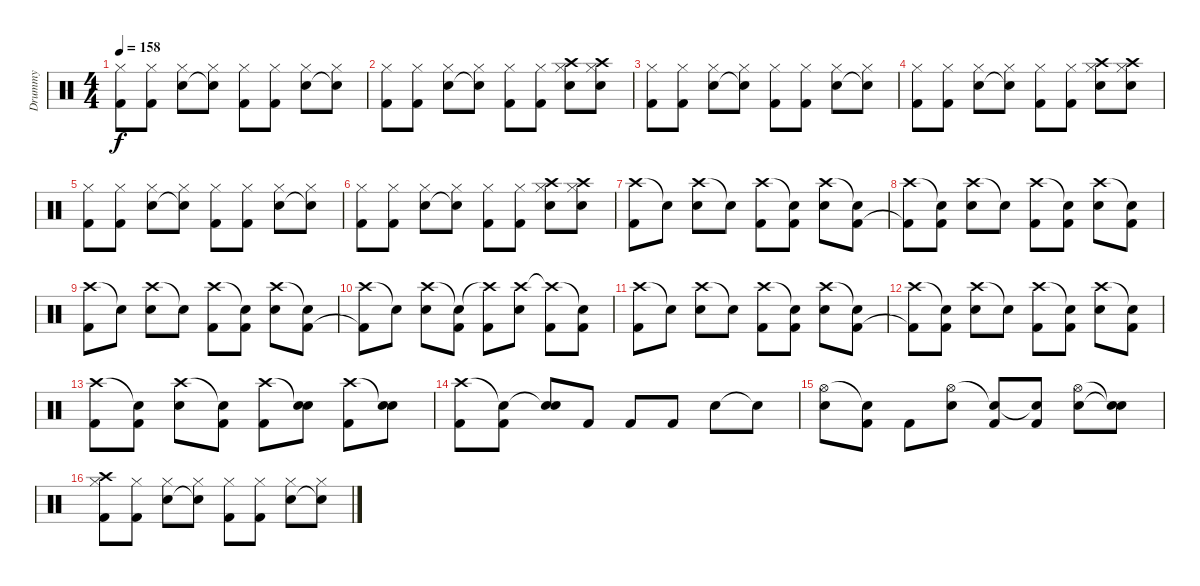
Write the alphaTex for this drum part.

\track ("Drummy" "Drummy") {instrument percussion bank 127}
\staff {score}
\articulation defaults
\ts (4 4)
\tempo 158
\clef neutral
\ks c
("Hi-Hat (closed)" "Kick (hit) 2").8{dy f} ("Hi-Hat (closed)" "Kick (hit) 2").8 ("Hi-Hat (closed)" "Electric Snare (hit)").8 ("Hi-Hat (closed)" "Snare (hit)"{t}).8 ("Hi-Hat (closed)" "Kick (hit) 2").8 ("Hi-Hat (closed)" "Kick (hit) 2").8 ("Hi-Hat (closed)" "Electric Snare (hit)").8 ("Hi-Hat (closed)" "Snare (hit)"{t}).8 |
("Hi-Hat (closed)" "Kick (hit) 2").8 ("Hi-Hat (closed)" "Kick (hit) 2").8 ("Hi-Hat (closed)" "Electric Snare (hit)").8 ("Hi-Hat (closed)" "Snare (hit)"{t}).8 ("Hi-Hat (closed)" "Kick (hit) 2").8 ("Hi-Hat (closed)" "Kick (hit) 2").8 ("Hi-Hat (closed)" "Crash high (hit)" "Electric Snare (hit)").8 ("Hi-Hat (closed)" "Crash high (hit)" "Electric Snare (hit)").8 |
("Hi-Hat (closed)" "Kick (hit) 2").8 ("Hi-Hat (closed)" "Kick (hit) 2").8 ("Hi-Hat (closed)" "Electric Snare (hit)").8 ("Hi-Hat (closed)" "Snare (hit)"{t}).8 ("Hi-Hat (closed)" "Kick (hit) 2").8 ("Hi-Hat (closed)" "Kick (hit) 2").8 ("Hi-Hat (closed)" "Electric Snare (hit)").8 ("Hi-Hat (closed)" "Snare (hit)"{t}).8 |
("Hi-Hat (closed)" "Kick (hit) 2").8 ("Hi-Hat (closed)" "Kick (hit) 2").8 ("Hi-Hat (closed)" "Electric Snare (hit)").8 ("Hi-Hat (closed)" "Snare (hit)"{t}).8 ("Hi-Hat (closed)" "Kick (hit) 2").8 ("Hi-Hat (closed)" "Kick (hit) 2").8 ("Hi-Hat (closed)" "Crash high (hit)" "Electric Snare (hit)").8 ("Hi-Hat (closed)" "Crash high (hit)" "Electric Snare (hit)").8 |
("Hi-Hat (closed)" "Kick (hit) 2").8 ("Hi-Hat (closed)" "Kick (hit) 2").8 ("Hi-Hat (closed)" "Electric Snare (hit)").8 ("Hi-Hat (closed)" "Snare (hit)"{t}).8 ("Hi-Hat (closed)" "Kick (hit) 2").8 ("Hi-Hat (closed)" "Kick (hit) 2").8 ("Hi-Hat (closed)" "Electric Snare (hit)").8 ("Hi-Hat (closed)" "Snare (hit)"{t}).8 |
("Hi-Hat (closed)" "Kick (hit) 2").8 ("Hi-Hat (closed)" "Kick (hit) 2").8 ("Hi-Hat (closed)" "Electric Snare (hit)").8 ("Hi-Hat (closed)" "Snare (hit)"{t}).8 ("Hi-Hat (closed)" "Kick (hit) 2").8 ("Hi-Hat (closed)" "Kick (hit) 2").8 ("Hi-Hat (closed)" "Crash high (hit)" "Electric Snare (hit)").8 ("Hi-Hat (closed)" "Crash high (hit)" "Electric Snare (hit)").8 |
("Crash high (hit)" "Kick (hit) 2").8 "Snare (hit)"{t}.8 ("Crash high (hit)" "Electric Snare (hit)").8 "Snare (hit)"{t}.8 ("Crash high (hit)" "Kick (hit) 2").8 ("Snare (hit)"{t} "Kick (hit) 2").8 ("Crash high (hit)" "Electric Snare (hit)").8 ("Snare (hit)"{t} "Kick (hit) 2").8 |
("Crash high (hit)" "Kick (hit) 2"{t}).8 ("Snare (hit)"{t} "Kick (hit) 2").8 ("Crash high (hit)" "Electric Snare (hit)").8 "Snare (hit)"{t}.8 ("Crash high (hit)" "Kick (hit) 2").8 ("Snare (hit)"{t} "Kick (hit) 2").8 ("Crash high (hit)" "Electric Snare (hit)").8 ("Snare (hit)"{t} "Kick (hit) 2").8 |
("Crash high (hit)" "Kick (hit) 2").8 "Snare (hit)"{t}.8 ("Crash high (hit)" "Electric Snare (hit)").8 "Snare (hit)"{t}.8 ("Crash high (hit)" "Kick (hit) 2").8 ("Snare (hit)"{t} "Kick (hit) 2").8 ("Crash high (hit)" "Electric Snare (hit)").8 ("Snare (hit)"{t} "Kick (hit) 2").8 |
("Crash high (hit)" "Kick (hit) 2"{t}).8 "Snare (hit)"{t}.8 ("Crash high (hit)" "Electric Snare (hit)").8 ("Snare (hit)"{t} "Kick (hit) 2").8 ("Crash high (hit)"{t} "Kick (hit) 2").8 ("Crash high (hit)" "Electric Snare (hit)").8 ("Crash high (hit)"{t} "Kick (hit) 2").8 ("Snare (hit)"{t} "Kick (hit) 2").8 |
("Crash high (hit)" "Kick (hit) 2").8 "Snare (hit)"{t}.8 ("Crash high (hit)" "Electric Snare (hit)").8 "Snare (hit)"{t}.8 ("Crash high (hit)" "Kick (hit) 2").8 ("Snare (hit)"{t} "Kick (hit) 2").8 ("Crash high (hit)" "Electric Snare (hit)").8 ("Snare (hit)"{t} "Kick (hit) 2").8 |
("Crash high (hit)" "Kick (hit) 2"{t}).8 ("Snare (hit)"{t} "Kick (hit) 2").8 ("Crash high (hit)" "Electric Snare (hit)").8 "Snare (hit)"{t}.8 ("Crash high (hit)" "Kick (hit) 2").8 ("Snare (hit)"{t} "Kick (hit) 2").8 ("Crash high (hit)" "Electric Snare (hit)").8 ("Snare (hit)"{t} "Kick (hit) 2").8 |
("Crash high (hit)" "Kick (hit) 2").8 ("Snare (hit)"{t} "Kick (hit) 2").8 ("Crash high (hit)" "Electric Snare (hit)").8 ("Snare (hit)"{t} "Kick (hit) 2").8 ("Crash high (hit)" "Kick (hit) 2").8 ("Snare (hit)"{t} "Electric Snare (hit)").8 ("Crash high (hit)" "Kick (hit) 2").8 ("Snare (hit)"{t} "Electric Snare (hit)").8 |
("Crash high (hit)" "Kick (hit) 2").8 ("Snare (hit)"{t} "Kick (hit) 2").8 ("Snare (hit)"{t} "Electric Snare (hit)").8 "Kick (hit) 2".8 "Kick (hit) 2".8 "Kick (hit) 2".8 "Electric Snare (hit)".8 "Snare (hit)"{t}.8 |
("Hi-Hat (open)" "Electric Snare (hit)").8 ("Snare (hit)"{t} "Kick (hit) 2").8 "Kick (hit) 2".8 ("Hi-Hat (open)" "Electric Snare (hit)").8 ("Snare (hit)"{t} "Kick (hit) 2").8 ("Snare (hit)"{t} "Kick (hit) 2").8 ("Hi-Hat (open)" "Electric Snare (hit)").8 ("Snare (hit)"{t} "Snare (hit)"{t}).8 |
("Hi-Hat (closed)" "Crash high (hit)" "Kick (hit) 2").8 ("Hi-Hat (closed)" "Kick (hit) 2").8 ("Hi-Hat (closed)" "Electric Snare (hit)").8 ("Hi-Hat (closed)" "Snare (hit)"{t}).8 ("Hi-Hat (closed)" "Kick (hit) 2").8 ("Hi-Hat (closed)" "Kick (hit) 2").8 ("Hi-Hat (closed)" "Electric Snare (hit)").8 ("Hi-Hat (closed)" "Snare (hit)"{t}).8
